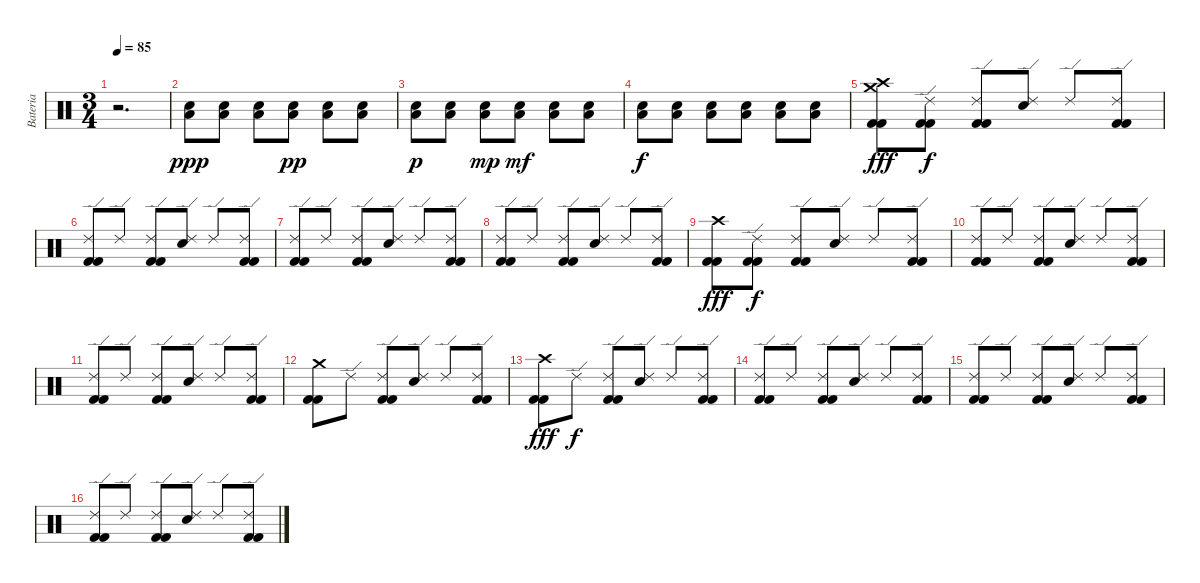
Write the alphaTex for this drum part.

\track ("Bateria" "Bateria") {instrument percussion}
\staff {score}
\articulation defaults
\ts (3 4)
\tempo 85
\clef neutral
\ks c
r.2{d dy f} |
("Electric Snare (hit)" "Low Tom (hit)").8{dy ppp} ("Electric Snare (hit)" "Low Tom (hit)").8 ("Electric Snare (hit)" "Low Tom (hit)").8 ("Electric Snare (hit)" "Low Tom (hit)").8{dy pp} ("Electric Snare (hit)" "Low Tom (hit)").8 ("Electric Snare (hit)" "Low Tom (hit)").8 |
("Electric Snare (hit)" "Low Tom (hit)").8{dy p} ("Electric Snare (hit)" "Low Tom (hit)").8 ("Electric Snare (hit)" "Low Tom (hit)").8{dy mp} ("Electric Snare (hit)" "Low Tom (hit)").8{dy mf} ("Electric Snare (hit)" "Low Tom (hit)").8 ("Electric Snare (hit)" "Low Tom (hit)").8 |
("Electric Snare (hit)" "Low Tom (hit)").8{dy f} ("Electric Snare (hit)" "Low Tom (hit)").8 ("Electric Snare (hit)" "Low Tom (hit)").8 ("Electric Snare (hit)" "Low Tom (hit)").8 ("Electric Snare (hit)" "Low Tom (hit)").8 ("Electric Snare (hit)" "Low Tom (hit)").8 |
("Crash high (hit)" "Crash medium (hit)" "Kick (hit) 2" "Kick (hit) 2").8{dy fff} ("Ride (edge) 2" "Kick (hit) 2" "Kick (hit) 2").8{dy f} ("Ride (edge) 2" "Kick (hit) 2" "Kick (hit) 2").8 ("Ride (edge) 2" "Electric Snare (hit)").8 "Ride (edge) 2".8 ("Ride (edge) 2" "Kick (hit) 2" "Kick (hit) 2").8 |
("Ride (edge) 2" "Kick (hit) 2" "Kick (hit) 2").8 "Ride (edge) 2".8 ("Ride (edge) 2" "Kick (hit) 2" "Kick (hit) 2").8 ("Ride (edge) 2" "Electric Snare (hit)").8 "Ride (edge) 2".8 ("Ride (edge) 2" "Kick (hit) 2" "Kick (hit) 2").8 |
("Ride (edge) 2" "Kick (hit) 2" "Kick (hit) 2").8 "Ride (edge) 2".8 ("Ride (edge) 2" "Kick (hit) 2" "Kick (hit) 2").8 ("Ride (edge) 2" "Electric Snare (hit)").8 "Ride (edge) 2".8 ("Ride (edge) 2" "Kick (hit) 2" "Kick (hit) 2").8 |
("Ride (edge) 2" "Kick (hit) 2" "Kick (hit) 2").8 "Ride (edge) 2".8 ("Ride (edge) 2" "Kick (hit) 2" "Kick (hit) 2").8 ("Ride (edge) 2" "Electric Snare (hit)").8 "Ride (edge) 2".8 ("Ride (edge) 2" "Kick (hit) 2" "Kick (hit) 2").8 |
("Crash high (hit)" "Kick (hit) 2" "Kick (hit) 2").8{dy fff} ("Ride (edge) 2" "Kick (hit) 2" "Kick (hit) 2").8{dy f} ("Ride (edge) 2" "Kick (hit) 2" "Kick (hit) 2").8 ("Ride (edge) 2" "Electric Snare (hit)").8 "Ride (edge) 2".8 ("Ride (edge) 2" "Kick (hit) 2" "Kick (hit) 2").8 |
("Ride (edge) 2" "Kick (hit) 2" "Kick (hit) 2").8 "Ride (edge) 2".8 ("Ride (edge) 2" "Kick (hit) 2" "Kick (hit) 2").8 ("Ride (edge) 2" "Electric Snare (hit)").8 "Ride (edge) 2".8 ("Ride (edge) 2" "Kick (hit) 2" "Kick (hit) 2").8 |
("Ride (edge) 2" "Kick (hit) 2" "Kick (hit) 2").8 "Ride (edge) 2".8 ("Ride (edge) 2" "Kick (hit) 2" "Kick (hit) 2").8 ("Ride (edge) 2" "Electric Snare (hit)").8 "Ride (edge) 2".8 ("Ride (edge) 2" "Kick (hit) 2" "Kick (hit) 2").8 |
("Crash medium (hit)" "Kick (hit) 2" "Kick (hit) 2").8 "Ride (edge) 2".8 ("Ride (edge) 2" "Kick (hit) 2" "Kick (hit) 2").8 ("Ride (edge) 2" "Electric Snare (hit)").8 "Ride (edge) 2".8 ("Ride (edge) 2" "Kick (hit) 2" "Kick (hit) 2").8 |
("Crash high (hit)" "Kick (hit) 2" "Kick (hit) 2").8{dy fff} "Ride (edge) 2".8{dy f} ("Ride (edge) 2" "Kick (hit) 2" "Kick (hit) 2").8 ("Ride (edge) 2" "Electric Snare (hit)").8 "Ride (edge) 2".8 ("Ride (edge) 2" "Kick (hit) 2" "Kick (hit) 2").8 |
("Ride (edge) 2" "Kick (hit) 2" "Kick (hit) 2").8 "Ride (edge) 2".8 ("Ride (edge) 2" "Kick (hit) 2" "Kick (hit) 2").8 ("Ride (edge) 2" "Electric Snare (hit)").8 "Ride (edge) 2".8 ("Ride (edge) 2" "Kick (hit) 2" "Kick (hit) 2").8 |
("Ride (edge) 2" "Kick (hit) 2" "Kick (hit) 2").8 "Ride (edge) 2".8 ("Ride (edge) 2" "Kick (hit) 2" "Kick (hit) 2").8 ("Ride (edge) 2" "Electric Snare (hit)").8 "Ride (edge) 2".8 ("Ride (edge) 2" "Kick (hit) 2" "Kick (hit) 2").8 |
("Ride (edge) 2" "Kick (hit) 2" "Kick (hit) 2").8 "Ride (edge) 2".8 ("Ride (edge) 2" "Kick (hit) 2" "Kick (hit) 2").8 ("Ride (edge) 2" "Electric Snare (hit)").8 "Ride (edge) 2".8 ("Ride (edge) 2" "Kick (hit) 2" "Kick (hit) 2").8
